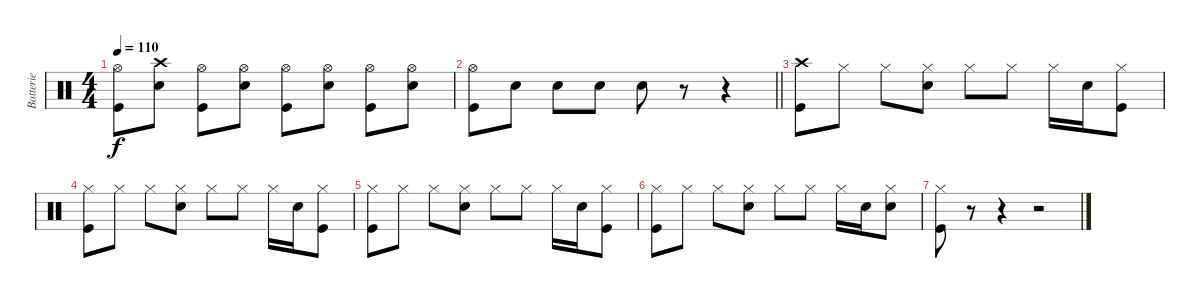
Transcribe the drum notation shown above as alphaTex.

\track ("Batterie" "Batterie") {instrument percussion}
\staff {score}
\articulation defaults
\ts (4 4)
\tempo 110
\clef neutral
\ks c
("Kick (hit)" "Hi-Hat (open)").8{dy f} ("Snare (hit) 2" "Crash high (hit)").8 ("Kick (hit)" "Hi-Hat (open)").8 ("Snare (hit) 2" "Hi-Hat (open)").8 ("Kick (hit)" "Hi-Hat (open)").8 ("Snare (hit) 2" "Hi-Hat (open)").8 ("Kick (hit)" "Hi-Hat (open)").8 ("Snare (hit) 2" "Hi-Hat (open)").8 |
\barLineRight lightlight
("Kick (hit)" "Hi-Hat (open)").8 "Snare (hit) 2".8 "Snare (hit) 2".8 "Snare (hit) 2".8 "Snare (hit) 2".8 r.8 r.4 |
("Crash high (hit)" "Kick (hit)").8 "Hi-Hat (closed)".8 "Hi-Hat (closed)".8 ("Snare (hit) 2" "Hi-Hat (closed)").8 "Hi-Hat (closed)".8 "Hi-Hat (closed)".8 "Hi-Hat (closed)".16 "Snare (hit) 2".16 ("Kick (hit)" "Hi-Hat (closed)").8 |
("Hi-Hat (closed)" "Kick (hit)").8 "Hi-Hat (closed)".8 "Hi-Hat (closed)".8 ("Snare (hit) 2" "Hi-Hat (closed)").8 "Hi-Hat (closed)".8 "Hi-Hat (closed)".8 "Hi-Hat (closed)".16 "Snare (hit) 2".16 ("Kick (hit)" "Hi-Hat (closed)").8 |
("Hi-Hat (closed)" "Kick (hit)").8 "Hi-Hat (closed)".8 "Hi-Hat (closed)".8 ("Snare (hit) 2" "Hi-Hat (closed)").8 "Hi-Hat (closed)".8 "Hi-Hat (closed)".8 "Hi-Hat (closed)".16 "Snare (hit) 2".16 ("Kick (hit)" "Hi-Hat (closed)").8 |
("Hi-Hat (closed)" "Kick (hit)").8 "Hi-Hat (closed)".8 "Hi-Hat (closed)".8 ("Snare (hit) 2" "Hi-Hat (closed)").8 "Hi-Hat (closed)".8 "Hi-Hat (closed)".8 "Hi-Hat (closed)".16 "Snare (hit) 2".16 ("Snare (hit) 2" "Hi-Hat (closed)").8 |
("Kick (hit)" "Hi-Hat (closed)").8 r.8 r.4 r.2
